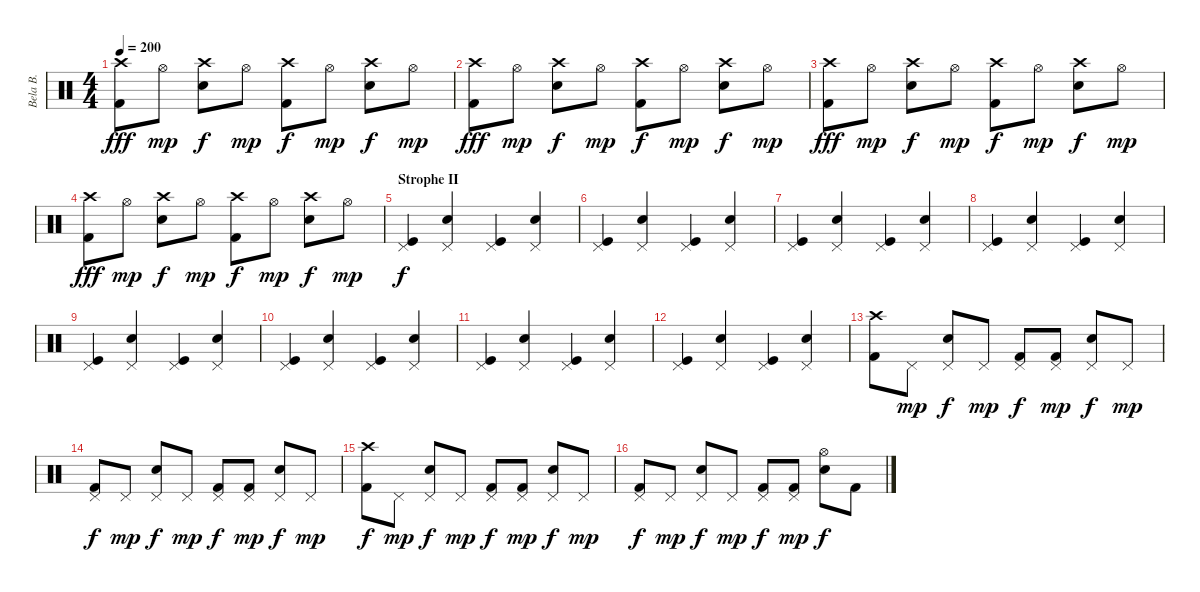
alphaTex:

\track ("Bela B. " "Bela B. ") {instrument percussion}
\staff {score}
\articulation defaults
\ts (4 4)
\tempo 200
\clef neutral
\ks c
("Crash high (hit)" "Kick (hit) 2").8{dy fff} "Hi-Hat (open)".8{dy mp} ("Crash high (hit)" "Snare (hit) 2").8{dy f} "Hi-Hat (open)".8{dy mp} ("Crash high (hit)" "Kick (hit) 2").8{dy f} "Hi-Hat (open)".8{dy mp} ("Crash high (hit)" "Snare (hit) 2").8{dy f} "Hi-Hat (open)".8{dy mp} |
("Crash high (hit)" "Kick (hit) 2").8{dy fff} "Hi-Hat (open)".8{dy mp} ("Crash high (hit)" "Snare (hit) 2").8{dy f} "Hi-Hat (open)".8{dy mp} ("Crash high (hit)" "Kick (hit) 2").8{dy f} "Hi-Hat (open)".8{dy mp} ("Crash high (hit)" "Snare (hit) 2").8{dy f} "Hi-Hat (open)".8{dy mp} |
("Crash high (hit)" "Kick (hit) 2").8{dy fff} "Hi-Hat (open)".8{dy mp} ("Crash high (hit)" "Snare (hit) 2").8{dy f} "Hi-Hat (open)".8{dy mp} ("Crash high (hit)" "Kick (hit) 2").8{dy f} "Hi-Hat (open)".8{dy mp} ("Crash high (hit)" "Snare (hit) 2").8{dy f} "Hi-Hat (open)".8{dy mp} |
("Crash high (hit)" "Kick (hit) 2").8{dy fff} "Hi-Hat (open)".8{dy mp} ("Crash high (hit)" "Snare (hit) 2").8{dy f} "Hi-Hat (open)".8{dy mp} ("Crash high (hit)" "Kick (hit) 2").8{dy f} "Hi-Hat (open)".8{dy mp} ("Crash high (hit)" "Snare (hit) 2").8{dy f} "Hi-Hat (open)".8{dy mp} |
\section ("" "Strophe II")
("Pedal Hi-Hat (hit)" "Kick (hit)").4{dy f} ("Pedal Hi-Hat (hit)" "Snare (hit) 2").4 ("Pedal Hi-Hat (hit)" "Kick (hit)").4 ("Pedal Hi-Hat (hit)" "Snare (hit) 2").4 |
("Pedal Hi-Hat (hit)" "Kick (hit)").4 ("Pedal Hi-Hat (hit)" "Snare (hit) 2").4 ("Pedal Hi-Hat (hit)" "Kick (hit)").4 ("Pedal Hi-Hat (hit)" "Snare (hit) 2").4 |
("Pedal Hi-Hat (hit)" "Kick (hit)").4 ("Pedal Hi-Hat (hit)" "Snare (hit) 2").4 ("Pedal Hi-Hat (hit)" "Kick (hit)").4 ("Pedal Hi-Hat (hit)" "Snare (hit) 2").4 |
("Pedal Hi-Hat (hit)" "Kick (hit)").4 ("Pedal Hi-Hat (hit)" "Snare (hit) 2").4 ("Pedal Hi-Hat (hit)" "Kick (hit)").4 ("Pedal Hi-Hat (hit)" "Snare (hit) 2").4 |
("Pedal Hi-Hat (hit)" "Kick (hit)").4 ("Pedal Hi-Hat (hit)" "Snare (hit) 2").4 ("Pedal Hi-Hat (hit)" "Kick (hit)").4 ("Pedal Hi-Hat (hit)" "Snare (hit) 2").4 |
("Pedal Hi-Hat (hit)" "Kick (hit)").4 ("Pedal Hi-Hat (hit)" "Snare (hit) 2").4 ("Pedal Hi-Hat (hit)" "Kick (hit)").4 ("Pedal Hi-Hat (hit)" "Snare (hit) 2").4 |
("Pedal Hi-Hat (hit)" "Kick (hit)").4 ("Pedal Hi-Hat (hit)" "Snare (hit) 2").4 ("Pedal Hi-Hat (hit)" "Kick (hit)").4 ("Pedal Hi-Hat (hit)" "Snare (hit) 2").4 |
("Pedal Hi-Hat (hit)" "Kick (hit)").4 ("Pedal Hi-Hat (hit)" "Snare (hit) 2").4 ("Pedal Hi-Hat (hit)" "Kick (hit)").4 ("Pedal Hi-Hat (hit)" "Snare (hit) 2").4 |
("Crash high (hit)" "Kick (hit) 2").8 "Pedal Hi-Hat (hit)".8{dy mp} ("Pedal Hi-Hat (hit)" "Snare (hit) 2").8{dy f} "Pedal Hi-Hat (hit)".8{dy mp} ("Pedal Hi-Hat (hit)" "Kick (hit) 2").8{dy f} ("Pedal Hi-Hat (hit)" "Kick (hit) 2").8{dy mp} ("Pedal Hi-Hat (hit)" "Snare (hit) 2").8{dy f} "Pedal Hi-Hat (hit)".8{dy mp} |
("Pedal Hi-Hat (hit)" "Kick (hit) 2").8{dy f} "Pedal Hi-Hat (hit)".8{dy mp} ("Pedal Hi-Hat (hit)" "Snare (hit) 2").8{dy f} "Pedal Hi-Hat (hit)".8{dy mp} ("Pedal Hi-Hat (hit)" "Kick (hit) 2").8{dy f} ("Pedal Hi-Hat (hit)" "Kick (hit) 2").8{dy mp} ("Pedal Hi-Hat (hit)" "Snare (hit) 2").8{dy f} "Pedal Hi-Hat (hit)".8{dy mp} |
("Crash high (hit)" "Kick (hit) 2").8{dy f} "Pedal Hi-Hat (hit)".8{dy mp} ("Pedal Hi-Hat (hit)" "Snare (hit) 2").8{dy f} "Pedal Hi-Hat (hit)".8{dy mp} ("Pedal Hi-Hat (hit)" "Kick (hit) 2").8{dy f} ("Pedal Hi-Hat (hit)" "Kick (hit) 2").8{dy mp} ("Pedal Hi-Hat (hit)" "Snare (hit) 2").8{dy f} "Pedal Hi-Hat (hit)".8{dy mp} |
("Pedal Hi-Hat (hit)" "Kick (hit) 2").8{dy f} "Pedal Hi-Hat (hit)".8{dy mp} ("Pedal Hi-Hat (hit)" "Snare (hit) 2").8{dy f} "Pedal Hi-Hat (hit)".8{dy mp} ("Pedal Hi-Hat (hit)" "Kick (hit) 2").8{dy f} ("Pedal Hi-Hat (hit)" "Kick (hit) 2").8{dy mp} ("Hi-Hat (open)" "Snare (hit) 2").8{dy f} "Kick (hit) 2".8
